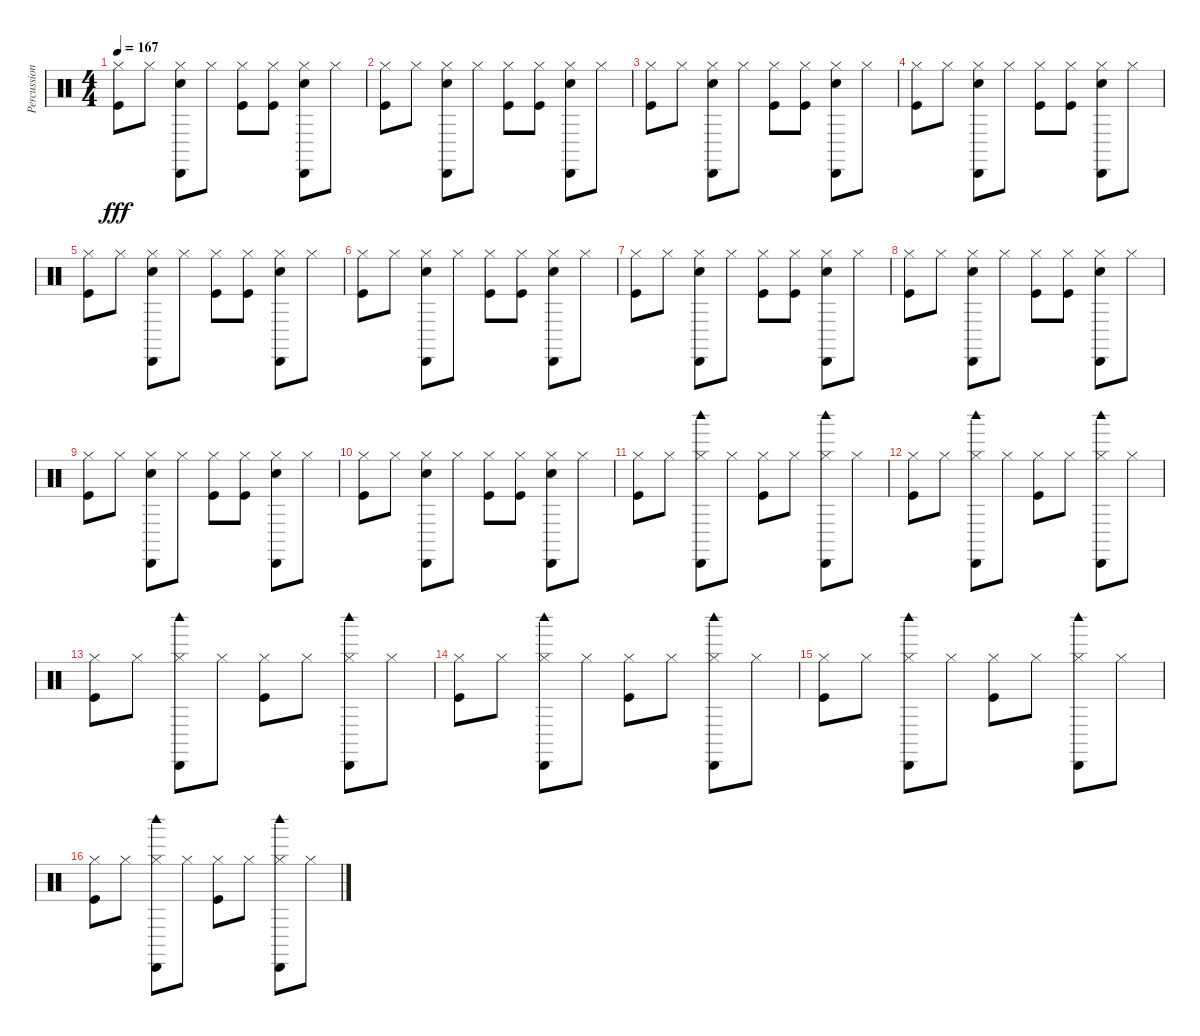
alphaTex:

\track ("Percussion" "Percussion") {instrument percussion}
\staff {score}
\articulation defaults
\ts (4 4)
\tempo 167
\clef neutral
\ks c
("Hi-Hat (closed)" "Kick (hit)").8{dy fff} "Hi-Hat (closed)".8 ("Hi-Hat (closed)" "Cabasa (hit)" "Snare (hit) 2").8 "Hi-Hat (closed)".8 ("Hi-Hat (closed)" "Kick (hit)").8 ("Hi-Hat (closed)" "Kick (hit)").8 ("Hi-Hat (closed)" "Cabasa (hit)" "Snare (hit) 2").8 "Hi-Hat (closed)".8 |
("Hi-Hat (closed)" "Kick (hit)").8 "Hi-Hat (closed)".8 ("Hi-Hat (closed)" "Cabasa (hit)" "Snare (hit) 2").8 "Hi-Hat (closed)".8 ("Hi-Hat (closed)" "Kick (hit)").8 ("Hi-Hat (closed)" "Kick (hit)").8 ("Hi-Hat (closed)" "Cabasa (hit)" "Snare (hit) 2").8 "Hi-Hat (closed)".8 |
("Hi-Hat (closed)" "Kick (hit)").8 "Hi-Hat (closed)".8 ("Hi-Hat (closed)" "Cabasa (hit)" "Snare (hit) 2").8 "Hi-Hat (closed)".8 ("Hi-Hat (closed)" "Kick (hit)").8 ("Hi-Hat (closed)" "Kick (hit)").8 ("Hi-Hat (closed)" "Cabasa (hit)" "Snare (hit) 2").8 "Hi-Hat (closed)".8 |
("Hi-Hat (closed)" "Kick (hit)").8 "Hi-Hat (closed)".8 ("Hi-Hat (closed)" "Cabasa (hit)" "Snare (hit) 2").8 "Hi-Hat (closed)".8 ("Hi-Hat (closed)" "Kick (hit)").8 ("Hi-Hat (closed)" "Kick (hit)").8 ("Hi-Hat (closed)" "Cabasa (hit)" "Snare (hit) 2").8 "Hi-Hat (closed)".8 |
("Hi-Hat (closed)" "Kick (hit)").8 "Hi-Hat (closed)".8 ("Hi-Hat (closed)" "Cabasa (hit)" "Snare (hit) 2").8 "Hi-Hat (closed)".8 ("Hi-Hat (closed)" "Kick (hit)").8 ("Hi-Hat (closed)" "Kick (hit)").8 ("Hi-Hat (closed)" "Cabasa (hit)" "Snare (hit) 2").8 "Hi-Hat (closed)".8 |
("Hi-Hat (closed)" "Kick (hit)").8 "Hi-Hat (closed)".8 ("Hi-Hat (closed)" "Cabasa (hit)" "Snare (hit) 2").8 "Hi-Hat (closed)".8 ("Hi-Hat (closed)" "Kick (hit)").8 ("Hi-Hat (closed)" "Kick (hit)").8 ("Hi-Hat (closed)" "Cabasa (hit)" "Snare (hit) 2").8 "Hi-Hat (closed)".8 |
("Hi-Hat (closed)" "Kick (hit)").8 "Hi-Hat (closed)".8 ("Hi-Hat (closed)" "Cabasa (hit)" "Snare (hit) 2").8 "Hi-Hat (closed)".8 ("Hi-Hat (closed)" "Kick (hit)").8 ("Hi-Hat (closed)" "Kick (hit)").8 ("Hi-Hat (closed)" "Cabasa (hit)" "Snare (hit) 2").8 "Hi-Hat (closed)".8 |
("Hi-Hat (closed)" "Kick (hit)").8 "Hi-Hat (closed)".8 ("Hi-Hat (closed)" "Cabasa (hit)" "Snare (hit) 2").8 "Hi-Hat (closed)".8 ("Hi-Hat (closed)" "Kick (hit)").8 ("Hi-Hat (closed)" "Kick (hit)").8 ("Hi-Hat (closed)" "Cabasa (hit)" "Snare (hit) 2").8 "Hi-Hat (closed)".8 |
("Hi-Hat (closed)" "Kick (hit)").8 "Hi-Hat (closed)".8 ("Hi-Hat (closed)" "Cabasa (hit)" "Snare (hit) 2").8 "Hi-Hat (closed)".8 ("Hi-Hat (closed)" "Kick (hit)").8 ("Hi-Hat (closed)" "Kick (hit)").8 ("Hi-Hat (closed)" "Cabasa (hit)" "Snare (hit) 2").8 "Hi-Hat (closed)".8 |
("Hi-Hat (closed)" "Kick (hit)").8 "Hi-Hat (closed)".8 ("Hi-Hat (closed)" "Cabasa (hit)" "Snare (hit) 2").8 "Hi-Hat (closed)".8 ("Hi-Hat (closed)" "Kick (hit)").8 ("Hi-Hat (closed)" "Kick (hit)").8 ("Hi-Hat (closed)" "Cabasa (hit)" "Snare (hit) 2").8 "Hi-Hat (closed)".8 |
("Hi-Hat (closed)" "Kick (hit)").8 "Hi-Hat (closed)".8 ("Hi-Hat (closed)" "Cabasa (hit)" "Woodblock high (hit)").8 "Hi-Hat (closed)".8 ("Hi-Hat (closed)" "Kick (hit)").8 "Hi-Hat (closed)".8 ("Hi-Hat (closed)" "Cabasa (hit)" "Woodblock high (hit)").8 "Hi-Hat (closed)".8 |
("Hi-Hat (closed)" "Kick (hit)").8 "Hi-Hat (closed)".8 ("Hi-Hat (closed)" "Cabasa (hit)" "Woodblock high (hit)").8 "Hi-Hat (closed)".8 ("Hi-Hat (closed)" "Kick (hit)").8 "Hi-Hat (closed)".8 ("Hi-Hat (closed)" "Cabasa (hit)" "Woodblock high (hit)").8 "Hi-Hat (closed)".8 |
("Hi-Hat (closed)" "Kick (hit)").8 "Hi-Hat (closed)".8 ("Hi-Hat (closed)" "Cabasa (hit)" "Woodblock high (hit)").8 "Hi-Hat (closed)".8 ("Hi-Hat (closed)" "Kick (hit)").8 "Hi-Hat (closed)".8 ("Hi-Hat (closed)" "Cabasa (hit)" "Woodblock high (hit)").8 "Hi-Hat (closed)".8 |
("Hi-Hat (closed)" "Kick (hit)").8 "Hi-Hat (closed)".8 ("Hi-Hat (closed)" "Cabasa (hit)" "Woodblock high (hit)").8 "Hi-Hat (closed)".8 ("Hi-Hat (closed)" "Kick (hit)").8 "Hi-Hat (closed)".8 ("Hi-Hat (closed)" "Cabasa (hit)" "Woodblock high (hit)").8 "Hi-Hat (closed)".8 |
("Hi-Hat (closed)" "Kick (hit)").8 "Hi-Hat (closed)".8 ("Hi-Hat (closed)" "Cabasa (hit)" "Woodblock high (hit)").8 "Hi-Hat (closed)".8 ("Hi-Hat (closed)" "Kick (hit)").8 "Hi-Hat (closed)".8 ("Hi-Hat (closed)" "Cabasa (hit)" "Woodblock high (hit)").8 "Hi-Hat (closed)".8 |
("Hi-Hat (closed)" "Kick (hit)").8 "Hi-Hat (closed)".8 ("Hi-Hat (closed)" "Cabasa (hit)" "Woodblock high (hit)").8 "Hi-Hat (closed)".8 ("Hi-Hat (closed)" "Kick (hit)").8 "Hi-Hat (closed)".8 ("Hi-Hat (closed)" "Cabasa (hit)" "Woodblock high (hit)").8 "Hi-Hat (closed)".8
